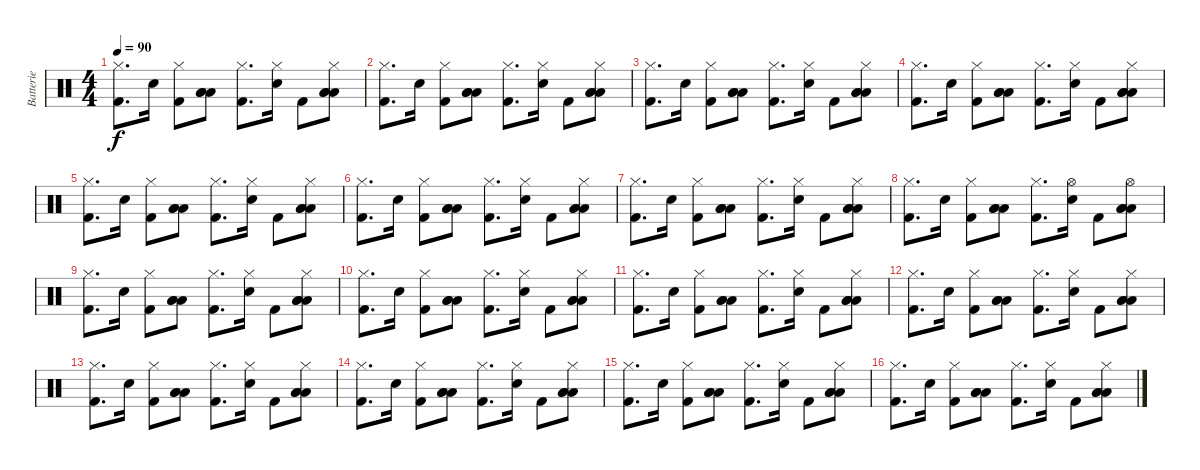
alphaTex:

\track ("Batterie" "Batterie") {instrument percussion}
\staff {score}
\articulation defaults
\ts (4 4)
\tempo 90
\clef neutral
\ks c
("Kick (hit) 2" "Hi-Hat (closed)").8{d dy f} "Electric Snare (hit)".16 ("Kick (hit) 2" "Hi-Hat (closed)").8 ("Low Tom (hit)" "Low Tom (hit)" "Low Tom (hit)").8 ("Kick (hit) 2" "Hi-Hat (closed)").8{d} ("Electric Snare (hit)" "Hi-Hat (closed)").16 "Kick (hit) 2".8 ("Low Tom (hit)" "Low Tom (hit)" "Low Tom (hit)" "Hi-Hat (closed)").8 |
("Kick (hit) 2" "Hi-Hat (closed)").8{d} "Electric Snare (hit)".16 ("Kick (hit) 2" "Hi-Hat (closed)").8 ("Low Tom (hit)" "Low Tom (hit)" "Low Tom (hit)").8 ("Kick (hit) 2" "Hi-Hat (closed)").8{d} ("Electric Snare (hit)" "Hi-Hat (closed)").16 "Kick (hit) 2".8 ("Low Tom (hit)" "Low Tom (hit)" "Low Tom (hit)" "Hi-Hat (closed)").8 |
("Kick (hit) 2" "Hi-Hat (closed)").8{d} "Electric Snare (hit)".16 ("Kick (hit) 2" "Hi-Hat (closed)").8 ("Low Tom (hit)" "Low Tom (hit)" "Low Tom (hit)").8 ("Kick (hit) 2" "Hi-Hat (closed)").8{d} ("Electric Snare (hit)" "Hi-Hat (closed)").16 "Kick (hit) 2".8 ("Low Tom (hit)" "Low Tom (hit)" "Low Tom (hit)" "Hi-Hat (closed)").8 |
("Kick (hit) 2" "Hi-Hat (closed)").8{d} "Electric Snare (hit)".16 ("Kick (hit) 2" "Hi-Hat (closed)").8 ("Low Tom (hit)" "Low Tom (hit)" "Low Tom (hit)").8 ("Kick (hit) 2" "Hi-Hat (closed)").8{d} ("Electric Snare (hit)" "Hi-Hat (closed)").16 "Kick (hit) 2".8 ("Low Tom (hit)" "Low Tom (hit)" "Low Tom (hit)" "Hi-Hat (closed)").8 |
("Kick (hit) 2" "Hi-Hat (closed)").8{d} "Electric Snare (hit)".16 ("Kick (hit) 2" "Hi-Hat (closed)").8 ("Low Tom (hit)" "Low Tom (hit)" "Low Tom (hit)").8 ("Kick (hit) 2" "Hi-Hat (closed)").8{d} ("Electric Snare (hit)" "Hi-Hat (closed)").16 "Kick (hit) 2".8 ("Low Tom (hit)" "Low Tom (hit)" "Low Tom (hit)" "Hi-Hat (closed)").8 |
("Kick (hit) 2" "Hi-Hat (closed)").8{d} "Electric Snare (hit)".16 ("Kick (hit) 2" "Hi-Hat (closed)").8 ("Low Tom (hit)" "Low Tom (hit)" "Low Tom (hit)").8 ("Kick (hit) 2" "Hi-Hat (closed)").8{d} ("Electric Snare (hit)" "Hi-Hat (closed)").16 "Kick (hit) 2".8 ("Low Tom (hit)" "Low Tom (hit)" "Low Tom (hit)" "Hi-Hat (closed)").8 |
("Kick (hit) 2" "Hi-Hat (closed)").8{d} "Electric Snare (hit)".16 ("Kick (hit) 2" "Hi-Hat (closed)").8 ("Low Tom (hit)" "Low Tom (hit)" "Low Tom (hit)").8 ("Kick (hit) 2" "Hi-Hat (closed)").8{d} ("Electric Snare (hit)" "Hi-Hat (closed)").16 "Kick (hit) 2".8 ("Low Tom (hit)" "Low Tom (hit)" "Low Tom (hit)" "Hi-Hat (closed)").8 |
("Kick (hit) 2" "Hi-Hat (closed)").8{d} "Electric Snare (hit)".16 ("Kick (hit) 2" "Hi-Hat (closed)").8 ("Low Tom (hit)" "Low Tom (hit)" "Low Tom (hit)").8 ("Kick (hit) 2" "Hi-Hat (closed)").8{d} ("Electric Snare (hit)" "Hi-Hat (open)").16 "Kick (hit) 2".8 ("Low Tom (hit)" "Low Tom (hit)" "Low Tom (hit)" "Hi-Hat (open)").8 |
("Kick (hit) 2" "Hi-Hat (closed)").8{d} "Electric Snare (hit)".16 ("Kick (hit) 2" "Hi-Hat (closed)").8 ("Low Tom (hit)" "Low Tom (hit)" "Low Tom (hit)").8 ("Kick (hit) 2" "Hi-Hat (closed)").8{d} ("Electric Snare (hit)" "Hi-Hat (closed)").16 "Kick (hit) 2".8 ("Low Tom (hit)" "Low Tom (hit)" "Low Tom (hit)" "Hi-Hat (closed)").8 |
("Kick (hit) 2" "Hi-Hat (closed)").8{d} "Electric Snare (hit)".16 ("Kick (hit) 2" "Hi-Hat (closed)").8 ("Low Tom (hit)" "Low Tom (hit)" "Low Tom (hit)").8 ("Kick (hit) 2" "Hi-Hat (closed)").8{d} ("Electric Snare (hit)" "Hi-Hat (closed)").16 "Kick (hit) 2".8 ("Low Tom (hit)" "Low Tom (hit)" "Low Tom (hit)" "Hi-Hat (closed)").8 |
("Kick (hit) 2" "Hi-Hat (closed)").8{d} "Electric Snare (hit)".16 ("Kick (hit) 2" "Hi-Hat (closed)").8 ("Low Tom (hit)" "Low Tom (hit)" "Low Tom (hit)").8 ("Kick (hit) 2" "Hi-Hat (closed)").8{d} ("Electric Snare (hit)" "Hi-Hat (closed)").16 "Kick (hit) 2".8 ("Low Tom (hit)" "Low Tom (hit)" "Low Tom (hit)" "Hi-Hat (closed)").8 |
("Kick (hit) 2" "Hi-Hat (closed)").8{d} "Electric Snare (hit)".16 ("Kick (hit) 2" "Hi-Hat (closed)").8 ("Low Tom (hit)" "Low Tom (hit)" "Low Tom (hit)").8 ("Kick (hit) 2" "Hi-Hat (closed)").8{d} ("Electric Snare (hit)" "Hi-Hat (closed)").16 "Kick (hit) 2".8 ("Low Tom (hit)" "Low Tom (hit)" "Low Tom (hit)" "Hi-Hat (closed)").8 |
("Kick (hit) 2" "Hi-Hat (closed)").8{d} "Electric Snare (hit)".16 ("Kick (hit) 2" "Hi-Hat (closed)").8 ("Low Tom (hit)" "Low Tom (hit)" "Low Tom (hit)").8 ("Kick (hit) 2" "Hi-Hat (closed)").8{d} ("Electric Snare (hit)" "Hi-Hat (closed)").16 "Kick (hit) 2".8 ("Low Tom (hit)" "Low Tom (hit)" "Low Tom (hit)" "Hi-Hat (closed)").8 |
("Kick (hit) 2" "Hi-Hat (closed)").8{d} "Electric Snare (hit)".16 ("Kick (hit) 2" "Hi-Hat (closed)").8 ("Low Tom (hit)" "Low Tom (hit)" "Low Tom (hit)").8 ("Kick (hit) 2" "Hi-Hat (closed)").8{d} ("Electric Snare (hit)" "Hi-Hat (closed)").16 "Kick (hit) 2".8 ("Low Tom (hit)" "Low Tom (hit)" "Low Tom (hit)" "Hi-Hat (closed)").8 |
("Kick (hit) 2" "Hi-Hat (closed)").8{d} "Electric Snare (hit)".16 ("Kick (hit) 2" "Hi-Hat (closed)").8 ("Low Tom (hit)" "Low Tom (hit)" "Low Tom (hit)").8 ("Kick (hit) 2" "Hi-Hat (closed)").8{d} ("Electric Snare (hit)" "Hi-Hat (closed)").16 "Kick (hit) 2".8 ("Low Tom (hit)" "Low Tom (hit)" "Low Tom (hit)" "Hi-Hat (closed)").8 |
("Kick (hit) 2" "Hi-Hat (closed)").8{d} "Electric Snare (hit)".16 ("Kick (hit) 2" "Hi-Hat (closed)").8 ("Low Tom (hit)" "Low Tom (hit)" "Low Tom (hit)").8 ("Kick (hit) 2" "Hi-Hat (closed)").8{d} ("Electric Snare (hit)" "Hi-Hat (closed)").16 "Kick (hit) 2".8 ("Low Tom (hit)" "Low Tom (hit)" "Low Tom (hit)" "Hi-Hat (closed)").8
